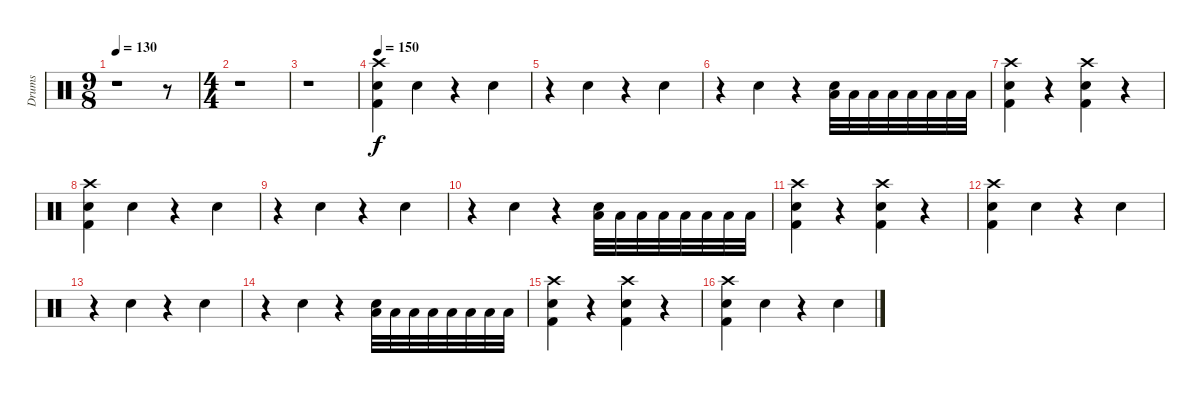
\track ("Drums" "Drums") {instrument percussion}
\staff {score}
\articulation defaults
\ts (9 8)
\tempo 130
\clef neutral
\ks c
r.1{dy f} r.8 |
\ts (4 4)
r.1 |
r.1 |
\tempo 150
("Kick (hit) 2" "Electric Snare (hit)" "Crash high (hit)").4 "Electric Snare (hit)".4 r.4 "Electric Snare (hit)".4 |
r.4 "Electric Snare (hit)".4 r.4 "Electric Snare (hit)".4 |
r.4 "Electric Snare (hit)".4 r.4 ("Electric Snare (hit)" "Low Floor Tom (hit)").32 "Low Floor Tom (hit)".32 "Low Floor Tom (hit)".32 "Low Floor Tom (hit)".32 "Low Floor Tom (hit)".32 "Low Floor Tom (hit)".32 "Low Floor Tom (hit)".32 "Low Floor Tom (hit)".32 |
("Kick (hit) 2" "Electric Snare (hit)" "Crash high (hit)").4 r.4 ("Kick (hit) 2" "Electric Snare (hit)" "Crash high (hit)").4 r.4 |
("Kick (hit) 2" "Electric Snare (hit)" "Crash high (hit)").4 "Electric Snare (hit)".4 r.4 "Electric Snare (hit)".4 |
r.4 "Electric Snare (hit)".4 r.4 "Electric Snare (hit)".4 |
r.4 "Electric Snare (hit)".4 r.4 ("Electric Snare (hit)" "Low Floor Tom (hit)").32 "Low Floor Tom (hit)".32 "Low Floor Tom (hit)".32 "Low Floor Tom (hit)".32 "Low Floor Tom (hit)".32 "Low Floor Tom (hit)".32 "Low Floor Tom (hit)".32 "Low Floor Tom (hit)".32 |
("Kick (hit) 2" "Electric Snare (hit)" "Crash high (hit)").4 r.4 ("Kick (hit) 2" "Electric Snare (hit)" "Crash high (hit)").4 r.4 |
("Kick (hit) 2" "Electric Snare (hit)" "Crash high (hit)").4 "Electric Snare (hit)".4 r.4 "Electric Snare (hit)".4 |
r.4 "Electric Snare (hit)".4 r.4 "Electric Snare (hit)".4 |
r.4 "Electric Snare (hit)".4 r.4 ("Electric Snare (hit)" "Low Floor Tom (hit)").32 "Low Floor Tom (hit)".32 "Low Floor Tom (hit)".32 "Low Floor Tom (hit)".32 "Low Floor Tom (hit)".32 "Low Floor Tom (hit)".32 "Low Floor Tom (hit)".32 "Low Floor Tom (hit)".32 |
("Kick (hit) 2" "Electric Snare (hit)" "Crash high (hit)").4 r.4 ("Kick (hit) 2" "Electric Snare (hit)" "Crash high (hit)").4 r.4 |
("Kick (hit) 2" "Electric Snare (hit)" "Crash high (hit)").4 "Electric Snare (hit)".4 r.4 "Electric Snare (hit)".4
